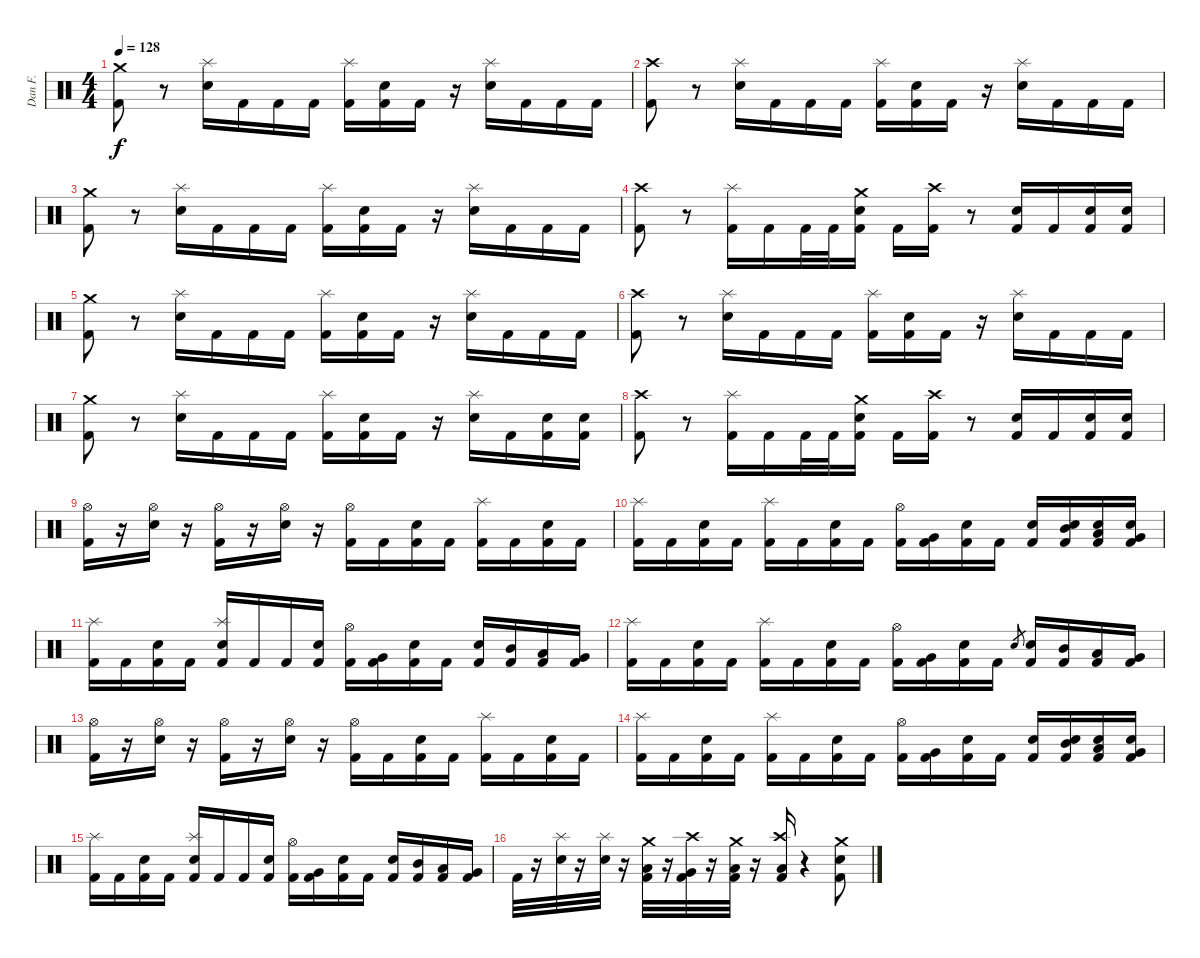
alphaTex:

\track ("Dan F." "Dan F.") {instrument percussion}
\staff {score}
\articulation defaults
\ts (4 4)
\tempo 128
\clef neutral
\ks c
("Crash medium (hit)" "Kick (hit) 2").8{dy f} r.8 ("Splash (hit)" "Electric Snare (hit)").16 "Kick (hit) 2".16 "Kick (hit) 2".16 "Kick (hit) 2".16 ("Splash (hit)" "Kick (hit) 2").16 ("Electric Snare (hit)" "Kick (hit) 2").16 "Kick (hit) 2".16 r.16 ("Splash (hit)" "Electric Snare (hit)").16 "Kick (hit) 2".16 "Kick (hit) 2".16 "Kick (hit) 2".16 |
("Crash high (hit)" "Kick (hit) 2").8 r.8 ("Splash (hit)" "Electric Snare (hit)").16 "Kick (hit) 2".16 "Kick (hit) 2".16 "Kick (hit) 2".16 ("Splash (hit)" "Kick (hit) 2").16 ("Electric Snare (hit)" "Kick (hit) 2").16 "Kick (hit) 2".16 r.16 ("Splash (hit)" "Electric Snare (hit)").16 "Kick (hit) 2".16 "Kick (hit) 2".16 "Kick (hit) 2".16 |
("Crash medium (hit)" "Kick (hit) 2").8 r.8 ("Splash (hit)" "Electric Snare (hit)").16 "Kick (hit) 2".16 "Kick (hit) 2".16 "Kick (hit) 2".16 ("Splash (hit)" "Kick (hit) 2").16 ("Electric Snare (hit)" "Kick (hit) 2").16 "Kick (hit) 2".16 r.16 ("Splash (hit)" "Electric Snare (hit)").16 "Kick (hit) 2".16 "Kick (hit) 2".16 "Kick (hit) 2".16 |
("Crash high (hit)" "Kick (hit) 2").8 r.8 ("Splash (hit)" "Kick (hit) 2").16 "Kick (hit) 2".16 "Kick (hit) 2".32 "Kick (hit) 2".32 ("Crash medium (hit)" "Electric Snare (hit)" "Kick (hit) 2").16 "Kick (hit) 2".16 ("Crash high (hit)" "Kick (hit) 2").16 r.8 ("Electric Snare (hit)" "Kick (hit) 2").16 "Kick (hit) 2".16 ("Electric Snare (hit)" "Kick (hit) 2").16 ("Electric Snare (hit)" "Kick (hit) 2").16 |
("Crash medium (hit)" "Kick (hit) 2").8 r.8 ("Splash (hit)" "Electric Snare (hit)").16 "Kick (hit) 2".16 "Kick (hit) 2".16 "Kick (hit) 2".16 ("Splash (hit)" "Kick (hit) 2").16 ("Electric Snare (hit)" "Kick (hit) 2").16 "Kick (hit) 2".16 r.16 ("Splash (hit)" "Electric Snare (hit)").16 "Kick (hit) 2".16 "Kick (hit) 2".16 "Kick (hit) 2".16 |
("Crash high (hit)" "Kick (hit) 2").8 r.8 ("Splash (hit)" "Electric Snare (hit)").16 "Kick (hit) 2".16 "Kick (hit) 2".16 "Kick (hit) 2".16 ("Splash (hit)" "Kick (hit) 2").16 ("Electric Snare (hit)" "Kick (hit) 2").16 "Kick (hit) 2".16 r.16 ("Splash (hit)" "Electric Snare (hit)").16 "Kick (hit) 2".16 "Kick (hit) 2".16 "Kick (hit) 2".16 |
("Crash medium (hit)" "Kick (hit) 2").8 r.8 ("Splash (hit)" "Electric Snare (hit)").16 "Kick (hit) 2".16 "Kick (hit) 2".16 "Kick (hit) 2".16 ("Splash (hit)" "Kick (hit) 2").16 ("Electric Snare (hit)" "Kick (hit) 2").16 "Kick (hit) 2".16 r.16 ("Splash (hit)" "Electric Snare (hit)").16 "Kick (hit) 2".16 ("Electric Snare (hit)" "Kick (hit) 2").16 ("Electric Snare (hit)" "Kick (hit) 2").16 |
("Crash high (hit)" "Kick (hit) 2").8 r.8 ("Splash (hit)" "Kick (hit) 2").16 "Kick (hit) 2".16 "Kick (hit) 2".32 "Kick (hit) 2".32 ("Crash medium (hit)" "Electric Snare (hit)" "Kick (hit) 2").16 "Kick (hit) 2".16 ("Crash high (hit)" "Kick (hit) 2").16 r.8 ("Electric Snare (hit)" "Kick (hit) 2").16 "Kick (hit) 2".16 ("Electric Snare (hit)" "Kick (hit) 2").16 ("Electric Snare (hit)" "Kick (hit) 2").16 |
("Hi-Hat (open)" "Kick (hit) 2").16 r.16 ("Hi-Hat (open)" "Electric Snare (hit)").16 r.16 ("Hi-Hat (open)" "Kick (hit) 2").16 r.16 ("Hi-Hat (open)" "Electric Snare (hit)").16 r.16 ("Hi-Hat (open)" "Kick (hit) 2").16 "Kick (hit) 2".16 ("Electric Snare (hit)" "Kick (hit) 2").16 "Kick (hit) 2".16 ("Splash (hit)" "Kick (hit) 2").16 "Kick (hit) 2".16 ("Electric Snare (hit)" "Kick (hit) 2").16 "Kick (hit) 2".16 |
("Splash (hit)" "Kick (hit) 2").16 "Kick (hit) 2".16 ("Electric Snare (hit)" "Kick (hit) 2").16 "Kick (hit) 2".16 ("Splash (hit)" "Kick (hit) 2").16 "Kick (hit) 2".16 ("Electric Snare (hit)" "Kick (hit) 2").16 "Kick (hit) 2".16 ("Hi-Hat (open)" "Kick (hit) 2").16 ("Very Low Tom (hit)" "Kick (hit) 2").16 ("Electric Snare (hit)" "Kick (hit) 2").16 "Kick (hit) 2".16 ("Electric Snare (hit)" "Kick (hit) 2").16 ("Electric Snare (hit)" "Mid Tom (hit)" "Kick (hit) 2").16 ("Electric Snare (hit)" "Low Tom (hit)" "Kick (hit) 2").16 ("Electric Snare (hit)" "Very Low Tom (hit)" "Kick (hit) 2").16 |
("Splash (hit)" "Kick (hit) 2").16 "Kick (hit) 2".16 ("Electric Snare (hit)" "Kick (hit) 2").16 "Kick (hit) 2".16 ("Splash (hit)" "Electric Snare (hit)" "Kick (hit) 2").16 "Kick (hit) 2".16 "Kick (hit) 2".16 ("Electric Snare (hit)" "Kick (hit) 2").16 ("Hi-Hat (open)" "Kick (hit) 2").16 ("Very Low Tom (hit)" "Kick (hit) 2").16 ("Electric Snare (hit)" "Kick (hit) 2").16 "Kick (hit) 2".16 ("Electric Snare (hit)" "Kick (hit) 2").16 ("Mid Tom (hit)" "Kick (hit) 2").16 ("Low Tom (hit)" "Kick (hit) 2").16 ("Very Low Tom (hit)" "Kick (hit) 2").16 |
("Splash (hit)" "Kick (hit) 2").16 "Kick (hit) 2".16 ("Electric Snare (hit)" "Kick (hit) 2").16 "Kick (hit) 2".16 ("Splash (hit)" "Kick (hit) 2").16 "Kick (hit) 2".16 ("Electric Snare (hit)" "Kick (hit) 2").16 "Kick (hit) 2".16 ("Hi-Hat (open)" "Kick (hit) 2").16 ("Very Low Tom (hit)" "Kick (hit) 2").16 ("Electric Snare (hit)" "Kick (hit) 2").16 "Kick (hit) 2".16 "Electric Snare (hit)".8{gr} ("Electric Snare (hit)" "Kick (hit) 2").16 ("Mid Tom (hit)" "Kick (hit) 2").16 ("Low Tom (hit)" "Kick (hit) 2").16 ("Very Low Tom (hit)" "Kick (hit) 2").16 |
("Hi-Hat (open)" "Kick (hit) 2").16 r.16 ("Hi-Hat (open)" "Electric Snare (hit)").16 r.16 ("Hi-Hat (open)" "Kick (hit) 2").16 r.16 ("Hi-Hat (open)" "Electric Snare (hit)").16 r.16 ("Hi-Hat (open)" "Kick (hit) 2").16 "Kick (hit) 2".16 ("Electric Snare (hit)" "Kick (hit) 2").16 "Kick (hit) 2".16 ("Splash (hit)" "Kick (hit) 2").16 "Kick (hit) 2".16 ("Electric Snare (hit)" "Kick (hit) 2").16 "Kick (hit) 2".16 |
("Splash (hit)" "Kick (hit) 2").16 "Kick (hit) 2".16 ("Electric Snare (hit)" "Kick (hit) 2").16 "Kick (hit) 2".16 ("Splash (hit)" "Kick (hit) 2").16 "Kick (hit) 2".16 ("Electric Snare (hit)" "Kick (hit) 2").16 "Kick (hit) 2".16 ("Hi-Hat (open)" "Kick (hit) 2").16 ("Very Low Tom (hit)" "Kick (hit) 2").16 ("Electric Snare (hit)" "Kick (hit) 2").16 "Kick (hit) 2".16 ("Electric Snare (hit)" "Kick (hit) 2").16 ("Electric Snare (hit)" "Mid Tom (hit)" "Kick (hit) 2").16 ("Electric Snare (hit)" "Low Tom (hit)" "Kick (hit) 2").16 ("Electric Snare (hit)" "Very Low Tom (hit)" "Kick (hit) 2").16 |
("Splash (hit)" "Kick (hit) 2").16 "Kick (hit) 2".16 ("Electric Snare (hit)" "Kick (hit) 2").16 "Kick (hit) 2".16 ("Splash (hit)" "Electric Snare (hit)" "Kick (hit) 2").16 "Kick (hit) 2".16 "Kick (hit) 2".16 ("Electric Snare (hit)" "Kick (hit) 2").16 ("Hi-Hat (open)" "Kick (hit) 2").16 ("Very Low Tom (hit)" "Kick (hit) 2").16 ("Electric Snare (hit)" "Kick (hit) 2").16 "Kick (hit) 2".16 ("Electric Snare (hit)" "Kick (hit) 2").16 ("Mid Tom (hit)" "Kick (hit) 2").16 ("Low Tom (hit)" "Kick (hit) 2").16 ("Very Low Tom (hit)" "Kick (hit) 2").16 |
"Kick (hit) 2".32 r.16 ("Splash (hit)" "Electric Snare (hit)").32 r.16 ("Splash (hit)" "Electric Snare (hit)").32 r.16 ("Crash medium (hit)" "Low Tom (hit)" "Kick (hit) 2").32 r.16 ("Crash high (hit)" "Very Low Tom (hit)" "Kick (hit) 2").32 r.16 ("Crash medium (hit)" "Low Tom (hit)" "Kick (hit) 2").32 r.16 ("Crash high (hit)" "Low Floor Tom (hit)" "Kick (hit) 2").16 r.4 ("Crash medium (hit)" "Electric Snare (hit)" "Kick (hit) 2").8
